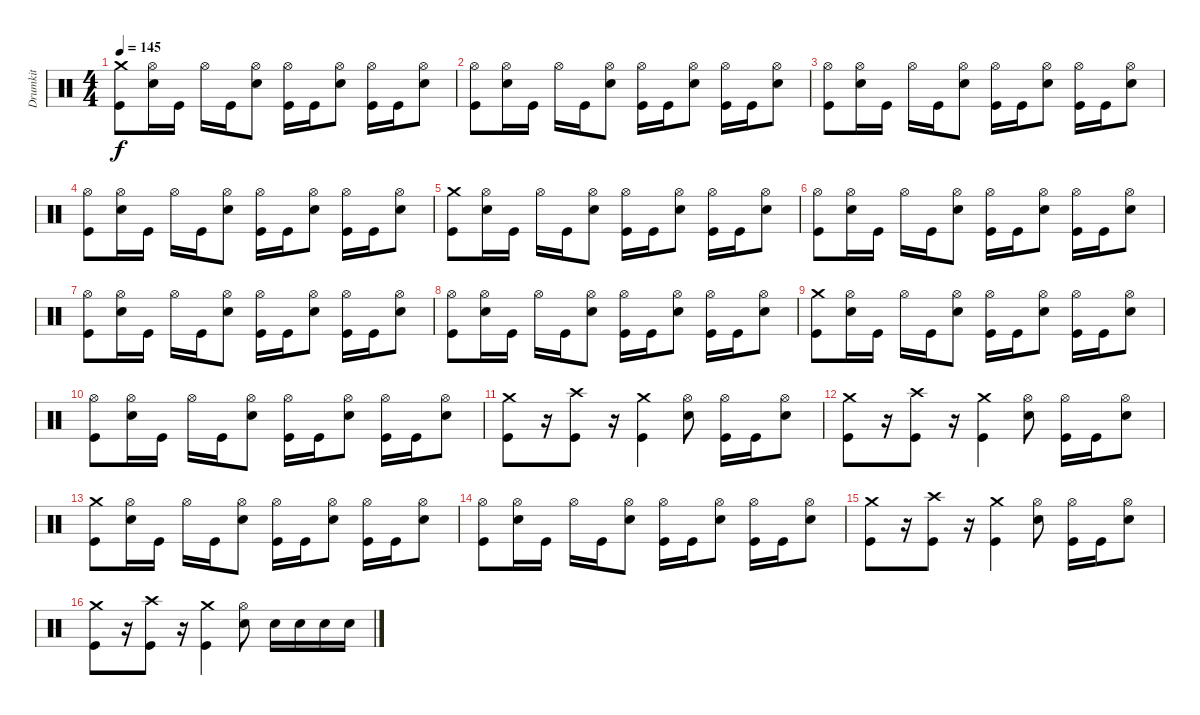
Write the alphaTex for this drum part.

\track ("Drumkit" "Drumkit") {instrument percussion}
\staff {score}
\articulation defaults
\ts (4 4)
\tempo 145
\clef neutral
\ks c
("Kick (hit)" "Crash medium (hit)").8{dy f} ("Snare (hit) 2" "Hi-Hat (open)").16 "Kick (hit)".16 "Hi-Hat (open)".16 "Kick (hit)".16 ("Snare (hit) 2" "Hi-Hat (open)").8 ("Hi-Hat (open)" "Kick (hit)").16 "Kick (hit)".16 ("Snare (hit) 2" "Hi-Hat (open)").8 ("Hi-Hat (open)" "Kick (hit)").16 "Kick (hit)".16 ("Snare (hit) 2" "Hi-Hat (open)").8 |
("Kick (hit)" "Hi-Hat (open)").8 ("Snare (hit) 2" "Hi-Hat (open)").16 "Kick (hit)".16 "Hi-Hat (open)".16 "Kick (hit)".16 ("Snare (hit) 2" "Hi-Hat (open)").8 ("Hi-Hat (open)" "Kick (hit)").16 "Kick (hit)".16 ("Snare (hit) 2" "Hi-Hat (open)").8 ("Hi-Hat (open)" "Kick (hit)").16 "Kick (hit)".16 ("Snare (hit) 2" "Hi-Hat (open)").8 |
("Kick (hit)" "Hi-Hat (open)").8 ("Snare (hit) 2" "Hi-Hat (open)").16 "Kick (hit)".16 "Hi-Hat (open)".16 "Kick (hit)".16 ("Snare (hit) 2" "Hi-Hat (open)").8 ("Hi-Hat (open)" "Kick (hit)").16 "Kick (hit)".16 ("Snare (hit) 2" "Hi-Hat (open)").8 ("Hi-Hat (open)" "Kick (hit)").16 "Kick (hit)".16 ("Snare (hit) 2" "Hi-Hat (open)").8 |
("Kick (hit)" "Hi-Hat (open)").8 ("Snare (hit) 2" "Hi-Hat (open)").16 "Kick (hit)".16 "Hi-Hat (open)".16 "Kick (hit)".16 ("Snare (hit) 2" "Hi-Hat (open)").8 ("Hi-Hat (open)" "Kick (hit)").16 "Kick (hit)".16 ("Snare (hit) 2" "Hi-Hat (open)").8 ("Hi-Hat (open)" "Kick (hit)").16 "Kick (hit)".16 ("Snare (hit) 2" "Hi-Hat (open)").8 |
("Kick (hit)" "Crash medium (hit)").8 ("Snare (hit) 2" "Hi-Hat (open)").16 "Kick (hit)".16 "Hi-Hat (open)".16 "Kick (hit)".16 ("Snare (hit) 2" "Hi-Hat (open)").8 ("Hi-Hat (open)" "Kick (hit)").16 "Kick (hit)".16 ("Snare (hit) 2" "Hi-Hat (open)").8 ("Hi-Hat (open)" "Kick (hit)").16 "Kick (hit)".16 ("Snare (hit) 2" "Hi-Hat (open)").8 |
("Kick (hit)" "Hi-Hat (open)").8 ("Snare (hit) 2" "Hi-Hat (open)").16 "Kick (hit)".16 "Hi-Hat (open)".16 "Kick (hit)".16 ("Snare (hit) 2" "Hi-Hat (open)").8 ("Hi-Hat (open)" "Kick (hit)").16 "Kick (hit)".16 ("Snare (hit) 2" "Hi-Hat (open)").8 ("Hi-Hat (open)" "Kick (hit)").16 "Kick (hit)".16 ("Snare (hit) 2" "Hi-Hat (open)").8 |
("Kick (hit)" "Hi-Hat (open)").8 ("Snare (hit) 2" "Hi-Hat (open)").16 "Kick (hit)".16 "Hi-Hat (open)".16 "Kick (hit)".16 ("Snare (hit) 2" "Hi-Hat (open)").8 ("Hi-Hat (open)" "Kick (hit)").16 "Kick (hit)".16 ("Snare (hit) 2" "Hi-Hat (open)").8 ("Hi-Hat (open)" "Kick (hit)").16 "Kick (hit)".16 ("Snare (hit) 2" "Hi-Hat (open)").8 |
("Kick (hit)" "Hi-Hat (open)").8 ("Snare (hit) 2" "Hi-Hat (open)").16 "Kick (hit)".16 "Hi-Hat (open)".16 "Kick (hit)".16 ("Snare (hit) 2" "Hi-Hat (open)").8 ("Hi-Hat (open)" "Kick (hit)").16 "Kick (hit)".16 ("Snare (hit) 2" "Hi-Hat (open)").8 ("Hi-Hat (open)" "Kick (hit)").16 "Kick (hit)".16 ("Snare (hit) 2" "Hi-Hat (open)").8 |
("Kick (hit)" "Crash medium (hit)").8 ("Snare (hit) 2" "Hi-Hat (open)").16 "Kick (hit)".16 "Hi-Hat (open)".16 "Kick (hit)".16 ("Snare (hit) 2" "Hi-Hat (open)").8 ("Hi-Hat (open)" "Kick (hit)").16 "Kick (hit)".16 ("Snare (hit) 2" "Hi-Hat (open)").8 ("Hi-Hat (open)" "Kick (hit)").16 "Kick (hit)".16 ("Snare (hit) 2" "Hi-Hat (open)").8 |
("Kick (hit)" "Hi-Hat (open)").8 ("Snare (hit) 2" "Hi-Hat (open)").16 "Kick (hit)".16 "Hi-Hat (open)".16 "Kick (hit)".16 ("Snare (hit) 2" "Hi-Hat (open)").8 ("Hi-Hat (open)" "Kick (hit)").16 "Kick (hit)".16 ("Snare (hit) 2" "Hi-Hat (open)").8 ("Hi-Hat (open)" "Kick (hit)").16 "Kick (hit)".16 ("Snare (hit) 2" "Hi-Hat (open)").8 |
("Crash medium (hit)" "Kick (hit)").8 r.16 ("Crash high (hit)" "Kick (hit)").8 r.16 ("Crash medium (hit)" "Kick (hit)").4 ("Snare (hit) 2" "Hi-Hat (open)").8 ("Hi-Hat (open)" "Kick (hit)").16 "Kick (hit)".16 ("Snare (hit) 2" "Hi-Hat (open)").8 |
("Crash medium (hit)" "Kick (hit)").8 r.16 ("Crash high (hit)" "Kick (hit)").8 r.16 ("Crash medium (hit)" "Kick (hit)").4 ("Snare (hit) 2" "Hi-Hat (open)").8 ("Hi-Hat (open)" "Kick (hit)").16 "Kick (hit)".16 ("Snare (hit) 2" "Hi-Hat (open)").8 |
("Kick (hit)" "Crash medium (hit)").8 ("Snare (hit) 2" "Hi-Hat (open)").16 "Kick (hit)".16 "Hi-Hat (open)".16 "Kick (hit)".16 ("Snare (hit) 2" "Hi-Hat (open)").8 ("Hi-Hat (open)" "Kick (hit)").16 "Kick (hit)".16 ("Snare (hit) 2" "Hi-Hat (open)").8 ("Hi-Hat (open)" "Kick (hit)").16 "Kick (hit)".16 ("Snare (hit) 2" "Hi-Hat (open)").8 |
("Kick (hit)" "Hi-Hat (open)").8 ("Snare (hit) 2" "Hi-Hat (open)").16 "Kick (hit)".16 "Hi-Hat (open)".16 "Kick (hit)".16 ("Snare (hit) 2" "Hi-Hat (open)").8 ("Hi-Hat (open)" "Kick (hit)").16 "Kick (hit)".16 ("Snare (hit) 2" "Hi-Hat (open)").8 ("Hi-Hat (open)" "Kick (hit)").16 "Kick (hit)".16 ("Snare (hit) 2" "Hi-Hat (open)").8 |
("Crash medium (hit)" "Kick (hit)").8 r.16 ("Crash high (hit)" "Kick (hit)").8 r.16 ("Crash medium (hit)" "Kick (hit)").4 ("Snare (hit) 2" "Hi-Hat (open)").8 ("Hi-Hat (open)" "Kick (hit)").16 "Kick (hit)".16 ("Snare (hit) 2" "Hi-Hat (open)").8 |
("Crash medium (hit)" "Kick (hit)").8 r.16 ("Crash high (hit)" "Kick (hit)").8 r.16 ("Crash medium (hit)" "Kick (hit)").4 ("Snare (hit) 2" "Hi-Hat (open)").8 "Snare (hit) 2".16 "Snare (hit) 2".16 "Snare (hit) 2".16 "Snare (hit) 2".16
